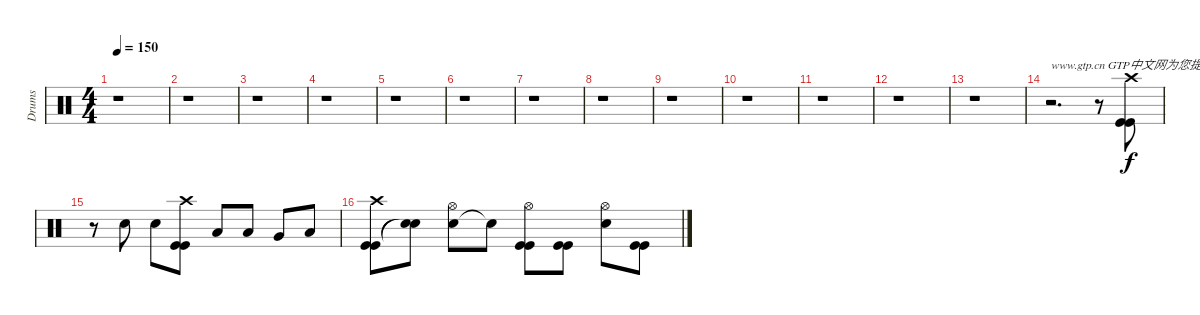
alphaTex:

\track ("Drums" "Drums") {instrument percussion}
\staff {score}
\articulation defaults
\ts (4 4)
\tempo 150
\clef neutral
\ks c
r.1{dy f} |
r.1 |
r.1 |
r.1 |
r.1 |
r.1 |
r.1 |
r.1 |
r.1 |
r.1 |
r.1 |
r.1 |
r.1 |
r.2{d txt "www.gtp.cn GTP中文网为您提供优秀的谱子"} r.8 ("Kick (hit)" "Kick (hit)" "Crash high (hit)").8 |
r.8 "Snare (hit) 2".8 "Snare (hit) 2".8 ("Kick (hit)" "Kick (hit)" "Crash high (hit)").8 "Low Tom (hit)".8 "Low Tom (hit)".8 "Very Low Tom (hit)".8 "Low Floor Tom (hit)".8 |
("Kick (hit)" "Kick (hit)" "Crash high (hit)").8 ("Snare (hit)"{t} "Snare (hit)"{t}).8 ("Snare (hit) 2" "Hi-Hat (open)").8 "Snare (hit)"{t}.8 ("Kick (hit)" "Kick (hit)" "Hi-Hat (open)").8 ("Kick (hit)" "Kick (hit)").8 ("Snare (hit) 2" "Hi-Hat (open)").8 ("Kick (hit)" "Kick (hit)").8
